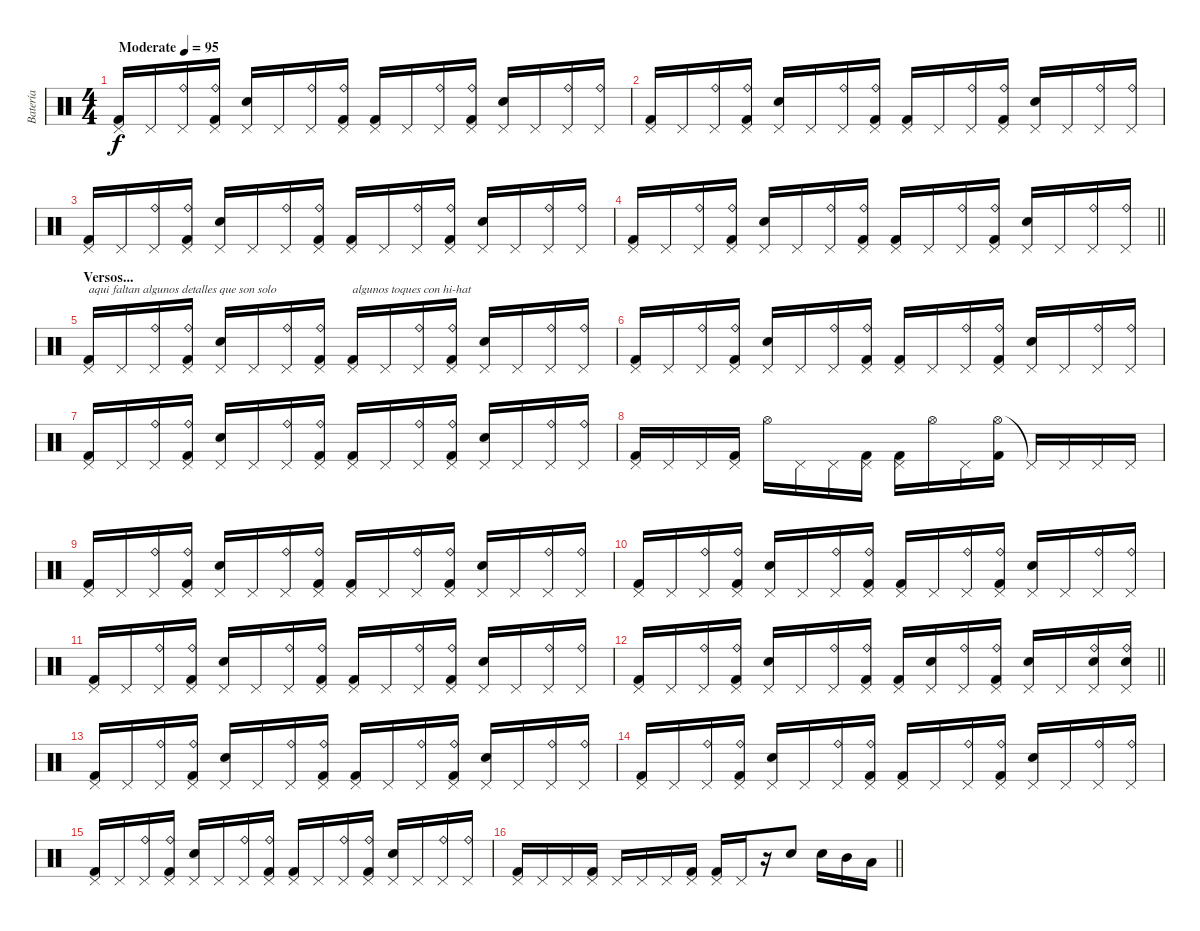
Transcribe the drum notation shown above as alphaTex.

\track ("Batería" "Batería") {instrument percussion}
\staff {score}
\articulation defaults
\ts (4 4)
\tempo (95 "Moderate")
\clef neutral
\ks c
("Pedal Hi-Hat (hit)" "Kick (hit) 2").16{dy f volume 8} "Pedal Hi-Hat (hit)".16 ("Ride (bell)" "Pedal Hi-Hat (hit)").16 ("Ride (bell)" "Pedal Hi-Hat (hit)" "Kick (hit) 2").16 ("Pedal Hi-Hat (hit)" "Snare (hit) 2").16 "Pedal Hi-Hat (hit)".16 ("Ride (bell)" "Pedal Hi-Hat (hit)").16 ("Ride (bell)" "Pedal Hi-Hat (hit)" "Kick (hit) 2").16 ("Pedal Hi-Hat (hit)" "Kick (hit) 2").16 "Pedal Hi-Hat (hit)".16 ("Ride (bell)" "Pedal Hi-Hat (hit)").16 ("Ride (bell)" "Pedal Hi-Hat (hit)" "Kick (hit) 2").16 ("Pedal Hi-Hat (hit)" "Snare (hit) 2").16 "Pedal Hi-Hat (hit)".16 ("Ride (bell)" "Pedal Hi-Hat (hit)").16 ("Ride (bell)" "Pedal Hi-Hat (hit)").16 |
("Pedal Hi-Hat (hit)" "Kick (hit) 2").16 "Pedal Hi-Hat (hit)".16 ("Ride (bell)" "Pedal Hi-Hat (hit)").16 ("Ride (bell)" "Pedal Hi-Hat (hit)" "Kick (hit) 2").16 ("Pedal Hi-Hat (hit)" "Snare (hit) 2").16 "Pedal Hi-Hat (hit)".16 ("Ride (bell)" "Pedal Hi-Hat (hit)").16 ("Ride (bell)" "Pedal Hi-Hat (hit)" "Kick (hit) 2").16 ("Pedal Hi-Hat (hit)" "Kick (hit) 2").16 "Pedal Hi-Hat (hit)".16 ("Ride (bell)" "Pedal Hi-Hat (hit)").16 ("Ride (bell)" "Pedal Hi-Hat (hit)" "Kick (hit) 2").16 ("Pedal Hi-Hat (hit)" "Snare (hit) 2").16 "Pedal Hi-Hat (hit)".16 ("Ride (bell)" "Pedal Hi-Hat (hit)").16 ("Ride (bell)" "Pedal Hi-Hat (hit)").16 |
("Pedal Hi-Hat (hit)" "Kick (hit) 2").16 "Pedal Hi-Hat (hit)".16 ("Ride (bell)" "Pedal Hi-Hat (hit)").16 ("Ride (bell)" "Pedal Hi-Hat (hit)" "Kick (hit) 2").16 ("Pedal Hi-Hat (hit)" "Snare (hit) 2").16 "Pedal Hi-Hat (hit)".16 ("Ride (bell)" "Pedal Hi-Hat (hit)").16 ("Ride (bell)" "Pedal Hi-Hat (hit)" "Kick (hit) 2").16 ("Pedal Hi-Hat (hit)" "Kick (hit) 2").16 "Pedal Hi-Hat (hit)".16 ("Ride (bell)" "Pedal Hi-Hat (hit)").16 ("Ride (bell)" "Pedal Hi-Hat (hit)" "Kick (hit) 2").16 ("Pedal Hi-Hat (hit)" "Snare (hit) 2").16 "Pedal Hi-Hat (hit)".16 ("Ride (bell)" "Pedal Hi-Hat (hit)").16 ("Ride (bell)" "Pedal Hi-Hat (hit)").16 |
\barLineRight lightlight
("Pedal Hi-Hat (hit)" "Kick (hit) 2").16 "Pedal Hi-Hat (hit)".16 ("Ride (bell)" "Pedal Hi-Hat (hit)").16 ("Ride (bell)" "Pedal Hi-Hat (hit)" "Kick (hit) 2").16 ("Pedal Hi-Hat (hit)" "Snare (hit) 2").16 "Pedal Hi-Hat (hit)".16 ("Ride (bell)" "Pedal Hi-Hat (hit)").16 ("Ride (bell)" "Pedal Hi-Hat (hit)" "Kick (hit) 2").16 ("Pedal Hi-Hat (hit)" "Kick (hit) 2").16 "Pedal Hi-Hat (hit)".16 ("Ride (bell)" "Pedal Hi-Hat (hit)").16 ("Ride (bell)" "Pedal Hi-Hat (hit)" "Kick (hit) 2").16 ("Pedal Hi-Hat (hit)" "Snare (hit) 2").16 "Pedal Hi-Hat (hit)".16 ("Ride (bell)" "Pedal Hi-Hat (hit)").16 ("Ride (bell)" "Pedal Hi-Hat (hit)").16 |
\section ("" "Versos... ")
("Pedal Hi-Hat (hit)" "Kick (hit) 2").16{txt "aqui faltan algunos detalles que son solo"} "Pedal Hi-Hat (hit)".16 ("Ride (bell)" "Pedal Hi-Hat (hit)").16 ("Ride (bell)" "Pedal Hi-Hat (hit)" "Kick (hit) 2").16 ("Pedal Hi-Hat (hit)" "Snare (hit) 2").16 "Pedal Hi-Hat (hit)".16 ("Ride (bell)" "Pedal Hi-Hat (hit)").16 ("Ride (bell)" "Pedal Hi-Hat (hit)" "Kick (hit) 2").16 ("Pedal Hi-Hat (hit)" "Kick (hit) 2").16{txt "algunos toques con hi-hat"} "Pedal Hi-Hat (hit)".16 ("Ride (bell)" "Pedal Hi-Hat (hit)").16 ("Ride (bell)" "Pedal Hi-Hat (hit)" "Kick (hit) 2").16 ("Pedal Hi-Hat (hit)" "Snare (hit) 2").16 "Pedal Hi-Hat (hit)".16 ("Ride (bell)" "Pedal Hi-Hat (hit)").16 ("Ride (bell)" "Pedal Hi-Hat (hit)").16 |
("Pedal Hi-Hat (hit)" "Kick (hit) 2").16 "Pedal Hi-Hat (hit)".16 ("Ride (bell)" "Pedal Hi-Hat (hit)").16 ("Ride (bell)" "Pedal Hi-Hat (hit)" "Kick (hit) 2").16 ("Pedal Hi-Hat (hit)" "Snare (hit) 2").16 "Pedal Hi-Hat (hit)".16 ("Ride (bell)" "Pedal Hi-Hat (hit)").16 ("Ride (bell)" "Pedal Hi-Hat (hit)" "Kick (hit) 2").16 ("Pedal Hi-Hat (hit)" "Kick (hit) 2").16 "Pedal Hi-Hat (hit)".16 ("Ride (bell)" "Pedal Hi-Hat (hit)").16 ("Ride (bell)" "Pedal Hi-Hat (hit)" "Kick (hit) 2").16 ("Pedal Hi-Hat (hit)" "Snare (hit) 2").16 "Pedal Hi-Hat (hit)".16 ("Ride (bell)" "Pedal Hi-Hat (hit)").16 ("Ride (bell)" "Pedal Hi-Hat (hit)").16 |
("Pedal Hi-Hat (hit)" "Kick (hit) 2").16 "Pedal Hi-Hat (hit)".16 ("Ride (bell)" "Pedal Hi-Hat (hit)").16 ("Ride (bell)" "Pedal Hi-Hat (hit)" "Kick (hit) 2").16 ("Pedal Hi-Hat (hit)" "Snare (hit) 2").16 "Pedal Hi-Hat (hit)".16 ("Ride (bell)" "Pedal Hi-Hat (hit)").16 ("Ride (bell)" "Pedal Hi-Hat (hit)" "Kick (hit) 2").16 ("Pedal Hi-Hat (hit)" "Kick (hit) 2").16 "Pedal Hi-Hat (hit)".16 ("Ride (bell)" "Pedal Hi-Hat (hit)").16 ("Ride (bell)" "Pedal Hi-Hat (hit)" "Kick (hit) 2").16 ("Pedal Hi-Hat (hit)" "Snare (hit) 2").16 "Pedal Hi-Hat (hit)".16 ("Ride (bell)" "Pedal Hi-Hat (hit)").16 ("Ride (bell)" "Pedal Hi-Hat (hit)").16 |
("Pedal Hi-Hat (hit)" "Kick (hit) 2").16 "Pedal Hi-Hat (hit)".16 "Pedal Hi-Hat (hit)".16 ("Pedal Hi-Hat (hit)" "Kick (hit) 2").16 "Hi-Hat (open)".16 "Pedal Hi-Hat (hit)".16 "Pedal Hi-Hat (hit)".16 ("Pedal Hi-Hat (hit)" "Kick (hit) 2").16 ("Pedal Hi-Hat (hit)" "Kick (hit) 2").16 "Hi-Hat (open)".16 "Pedal Hi-Hat (hit)".16 ("Hi-Hat (open)" "Kick (hit) 2").16 "Pedal Hi-Hat (hit)"{t}.16 "Pedal Hi-Hat (hit)".16 "Pedal Hi-Hat (hit)".16 "Pedal Hi-Hat (hit)".16 |
("Pedal Hi-Hat (hit)" "Kick (hit) 2").16 "Pedal Hi-Hat (hit)".16 ("Ride (bell)" "Pedal Hi-Hat (hit)").16 ("Ride (bell)" "Pedal Hi-Hat (hit)" "Kick (hit) 2").16 ("Pedal Hi-Hat (hit)" "Snare (hit) 2").16 "Pedal Hi-Hat (hit)".16 ("Ride (bell)" "Pedal Hi-Hat (hit)").16 ("Ride (bell)" "Pedal Hi-Hat (hit)" "Kick (hit) 2").16 ("Pedal Hi-Hat (hit)" "Kick (hit) 2").16 "Pedal Hi-Hat (hit)".16 ("Ride (bell)" "Pedal Hi-Hat (hit)").16 ("Ride (bell)" "Pedal Hi-Hat (hit)" "Kick (hit) 2").16 ("Pedal Hi-Hat (hit)" "Snare (hit) 2").16 "Pedal Hi-Hat (hit)".16 ("Ride (bell)" "Pedal Hi-Hat (hit)").16 ("Ride (bell)" "Pedal Hi-Hat (hit)").16 |
("Pedal Hi-Hat (hit)" "Kick (hit) 2").16 "Pedal Hi-Hat (hit)".16 ("Ride (bell)" "Pedal Hi-Hat (hit)").16 ("Ride (bell)" "Pedal Hi-Hat (hit)" "Kick (hit) 2").16 ("Pedal Hi-Hat (hit)" "Snare (hit) 2").16 "Pedal Hi-Hat (hit)".16 ("Ride (bell)" "Pedal Hi-Hat (hit)").16 ("Ride (bell)" "Pedal Hi-Hat (hit)" "Kick (hit) 2").16 ("Pedal Hi-Hat (hit)" "Kick (hit) 2").16 "Pedal Hi-Hat (hit)".16 ("Ride (bell)" "Pedal Hi-Hat (hit)").16 ("Ride (bell)" "Pedal Hi-Hat (hit)" "Kick (hit) 2").16 ("Pedal Hi-Hat (hit)" "Snare (hit) 2").16 "Pedal Hi-Hat (hit)".16 ("Ride (bell)" "Pedal Hi-Hat (hit)").16 ("Ride (bell)" "Pedal Hi-Hat (hit)").16 |
("Pedal Hi-Hat (hit)" "Kick (hit) 2").16 "Pedal Hi-Hat (hit)".16 ("Ride (bell)" "Pedal Hi-Hat (hit)").16 ("Ride (bell)" "Pedal Hi-Hat (hit)" "Kick (hit) 2").16 ("Pedal Hi-Hat (hit)" "Snare (hit) 2").16 "Pedal Hi-Hat (hit)".16 ("Ride (bell)" "Pedal Hi-Hat (hit)").16 ("Ride (bell)" "Pedal Hi-Hat (hit)" "Kick (hit) 2").16 ("Pedal Hi-Hat (hit)" "Kick (hit) 2").16 "Pedal Hi-Hat (hit)".16 ("Ride (bell)" "Pedal Hi-Hat (hit)").16 ("Ride (bell)" "Pedal Hi-Hat (hit)" "Kick (hit) 2").16 ("Pedal Hi-Hat (hit)" "Snare (hit) 2").16 "Pedal Hi-Hat (hit)".16 ("Ride (bell)" "Pedal Hi-Hat (hit)").16 ("Ride (bell)" "Pedal Hi-Hat (hit)").16 |
\barLineRight lightlight
("Pedal Hi-Hat (hit)" "Kick (hit) 2").16 "Pedal Hi-Hat (hit)".16 ("Ride (bell)" "Pedal Hi-Hat (hit)").16 ("Ride (bell)" "Pedal Hi-Hat (hit)" "Kick (hit) 2").16 ("Pedal Hi-Hat (hit)" "Snare (hit) 2").16 "Pedal Hi-Hat (hit)".16 ("Ride (bell)" "Pedal Hi-Hat (hit)").16 ("Ride (bell)" "Pedal Hi-Hat (hit)" "Kick (hit) 2").16 ("Pedal Hi-Hat (hit)" "Kick (hit) 2").16 ("Pedal Hi-Hat (hit)" "Snare (hit) 2").16 ("Ride (bell)" "Pedal Hi-Hat (hit)").16 ("Ride (bell)" "Pedal Hi-Hat (hit)" "Kick (hit) 2").16 ("Pedal Hi-Hat (hit)" "Snare (hit) 2").16 "Pedal Hi-Hat (hit)".16 ("Ride (bell)" "Pedal Hi-Hat (hit)" "Snare (hit) 2").16 ("Ride (bell)" "Pedal Hi-Hat (hit)" "Snare (hit) 2").16 |
("Pedal Hi-Hat (hit)" "Kick (hit) 2").16 "Pedal Hi-Hat (hit)".16 ("Ride (bell)" "Pedal Hi-Hat (hit)").16 ("Ride (bell)" "Pedal Hi-Hat (hit)" "Kick (hit) 2").16 ("Pedal Hi-Hat (hit)" "Snare (hit) 2").16 "Pedal Hi-Hat (hit)".16 ("Ride (bell)" "Pedal Hi-Hat (hit)").16 ("Ride (bell)" "Pedal Hi-Hat (hit)" "Kick (hit) 2").16 ("Pedal Hi-Hat (hit)" "Kick (hit) 2").16 "Pedal Hi-Hat (hit)".16 ("Ride (bell)" "Pedal Hi-Hat (hit)").16 ("Ride (bell)" "Pedal Hi-Hat (hit)" "Kick (hit) 2").16 ("Pedal Hi-Hat (hit)" "Snare (hit) 2").16 "Pedal Hi-Hat (hit)".16 ("Ride (bell)" "Pedal Hi-Hat (hit)").16 ("Ride (bell)" "Pedal Hi-Hat (hit)").16 |
("Pedal Hi-Hat (hit)" "Kick (hit) 2").16 "Pedal Hi-Hat (hit)".16 ("Ride (bell)" "Pedal Hi-Hat (hit)").16 ("Ride (bell)" "Pedal Hi-Hat (hit)" "Kick (hit) 2").16 ("Pedal Hi-Hat (hit)" "Snare (hit) 2").16 "Pedal Hi-Hat (hit)".16 ("Ride (bell)" "Pedal Hi-Hat (hit)").16 ("Ride (bell)" "Pedal Hi-Hat (hit)" "Kick (hit) 2").16 ("Pedal Hi-Hat (hit)" "Kick (hit) 2").16 "Pedal Hi-Hat (hit)".16 ("Ride (bell)" "Pedal Hi-Hat (hit)").16 ("Ride (bell)" "Pedal Hi-Hat (hit)" "Kick (hit) 2").16 ("Pedal Hi-Hat (hit)" "Snare (hit) 2").16 "Pedal Hi-Hat (hit)".16 ("Ride (bell)" "Pedal Hi-Hat (hit)").16 ("Ride (bell)" "Pedal Hi-Hat (hit)").16 |
("Pedal Hi-Hat (hit)" "Kick (hit) 2").16 "Pedal Hi-Hat (hit)".16 ("Ride (bell)" "Pedal Hi-Hat (hit)").16 ("Ride (bell)" "Pedal Hi-Hat (hit)" "Kick (hit) 2").16 ("Pedal Hi-Hat (hit)" "Snare (hit) 2").16 "Pedal Hi-Hat (hit)".16 ("Ride (bell)" "Pedal Hi-Hat (hit)").16 ("Ride (bell)" "Pedal Hi-Hat (hit)" "Kick (hit) 2").16 ("Pedal Hi-Hat (hit)" "Kick (hit) 2").16 "Pedal Hi-Hat (hit)".16 ("Ride (bell)" "Pedal Hi-Hat (hit)").16 ("Ride (bell)" "Pedal Hi-Hat (hit)" "Kick (hit) 2").16 ("Pedal Hi-Hat (hit)" "Snare (hit) 2").16 "Pedal Hi-Hat (hit)".16 ("Ride (bell)" "Pedal Hi-Hat (hit)").16 ("Ride (bell)" "Pedal Hi-Hat (hit)").16 |
\barLineRight lightlight
("Pedal Hi-Hat (hit)" "Kick (hit) 2").16 "Pedal Hi-Hat (hit)".16 "Pedal Hi-Hat (hit)".16 ("Pedal Hi-Hat (hit)" "Kick (hit) 2").16 "Pedal Hi-Hat (hit)".16 "Pedal Hi-Hat (hit)".16 "Pedal Hi-Hat (hit)".16 ("Pedal Hi-Hat (hit)" "Kick (hit) 2").16 ("Pedal Hi-Hat (hit)" "Kick (hit) 2").16 "Pedal Hi-Hat (hit)".16 r.16 "Snare (hit) 2".8 "Snare (hit) 2".16 "Mid Tom (hit)".16 "Low Floor Tom (hit)".16
